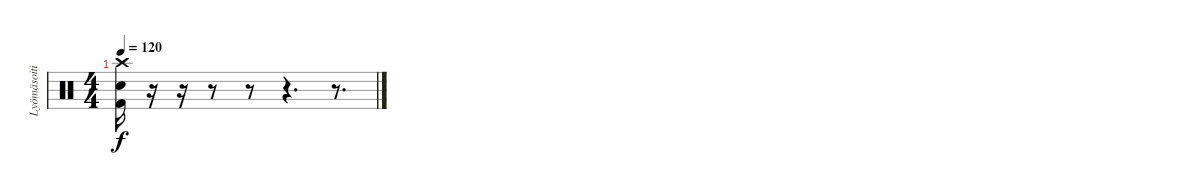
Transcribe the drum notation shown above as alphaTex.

\track ("Lyömäsoitin" "Lyömäsoiti") {instrument percussion}
\staff {score}
\articulation defaults
\ts (4 4)
\tempo 120
\clef neutral
\ks c
("Crash high (hit)" "Electric Snare (hit)" "Kick (hit) 2").16{dy f} r.16 r.16 r.8 r.8 r.4{d} r.8{d}
